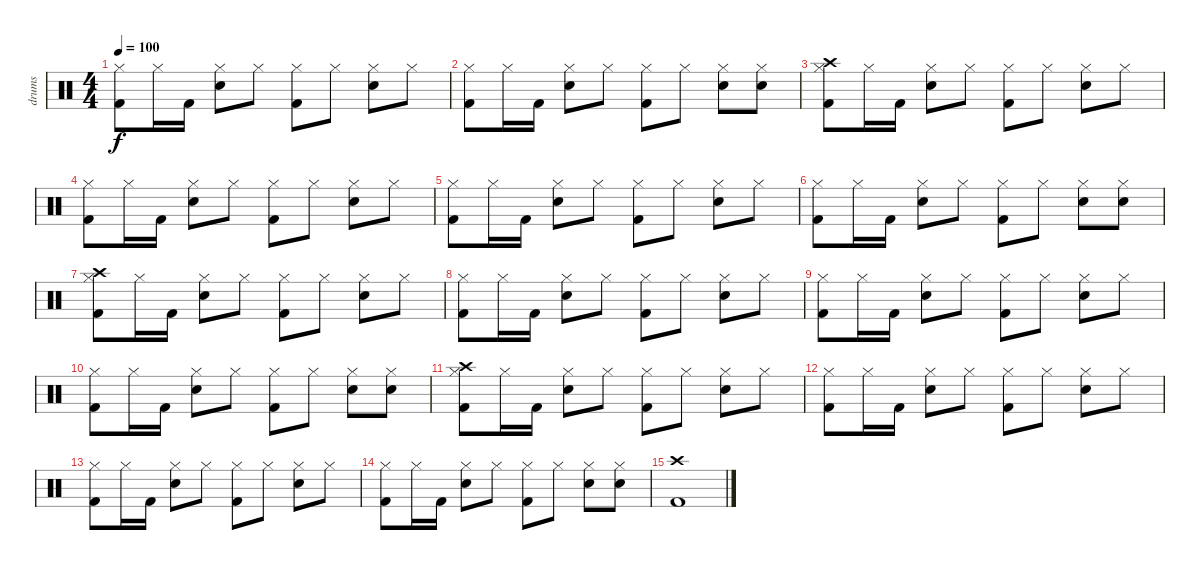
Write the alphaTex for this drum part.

\track ("drums" "drums") {instrument percussion}
\staff {score}
\articulation defaults
\ts (4 4)
\tempo 100
\clef neutral
\ks c
("Hi-Hat (closed)" "Kick (hit) 2").8{dy f} "Hi-Hat (closed)".16 "Kick (hit) 2".16 ("Hi-Hat (closed)" "Snare (hit) 2").8 "Hi-Hat (closed)".8 ("Hi-Hat (closed)" "Kick (hit) 2").8 "Hi-Hat (closed)".8 ("Hi-Hat (closed)" "Snare (hit) 2").8 "Hi-Hat (closed)".8 |
("Hi-Hat (closed)" "Kick (hit) 2").8 "Hi-Hat (closed)".16 "Kick (hit) 2".16 ("Hi-Hat (closed)" "Snare (hit) 2").8 "Hi-Hat (closed)".8 ("Hi-Hat (closed)" "Kick (hit) 2").8 "Hi-Hat (closed)".8 ("Hi-Hat (closed)" "Snare (hit) 2").8 ("Hi-Hat (closed)" "Electric Snare (hit)").8 |
("Crash high (hit)" "Hi-Hat (closed)" "Kick (hit) 2").8 "Hi-Hat (closed)".16 "Kick (hit) 2".16 ("Hi-Hat (closed)" "Snare (hit) 2").8 "Hi-Hat (closed)".8 ("Hi-Hat (closed)" "Kick (hit) 2").8 "Hi-Hat (closed)".8 ("Hi-Hat (closed)" "Snare (hit) 2").8 "Hi-Hat (closed)".8 |
("Hi-Hat (closed)" "Kick (hit) 2").8 "Hi-Hat (closed)".16 "Kick (hit) 2".16 ("Hi-Hat (closed)" "Snare (hit) 2").8 "Hi-Hat (closed)".8 ("Hi-Hat (closed)" "Kick (hit) 2").8 "Hi-Hat (closed)".8 ("Hi-Hat (closed)" "Snare (hit) 2").8 "Hi-Hat (closed)".8 |
("Hi-Hat (closed)" "Kick (hit) 2").8 "Hi-Hat (closed)".16 "Kick (hit) 2".16 ("Hi-Hat (closed)" "Snare (hit) 2").8 "Hi-Hat (closed)".8 ("Hi-Hat (closed)" "Kick (hit) 2").8 "Hi-Hat (closed)".8 ("Hi-Hat (closed)" "Snare (hit) 2").8 "Hi-Hat (closed)".8 |
("Hi-Hat (closed)" "Kick (hit) 2").8 "Hi-Hat (closed)".16 "Kick (hit) 2".16 ("Hi-Hat (closed)" "Snare (hit) 2").8 "Hi-Hat (closed)".8 ("Hi-Hat (closed)" "Kick (hit) 2").8 "Hi-Hat (closed)".8 ("Hi-Hat (closed)" "Snare (hit) 2").8 ("Hi-Hat (closed)" "Electric Snare (hit)").8 |
("Crash high (hit)" "Hi-Hat (closed)" "Kick (hit) 2").8{volume 10} "Hi-Hat (closed)".16 "Kick (hit) 2".16 ("Hi-Hat (closed)" "Snare (hit) 2").8 "Hi-Hat (closed)".8 ("Hi-Hat (closed)" "Kick (hit) 2").8 "Hi-Hat (closed)".8 ("Hi-Hat (closed)" "Snare (hit) 2").8 "Hi-Hat (closed)".8 |
("Hi-Hat (closed)" "Kick (hit) 2").8 "Hi-Hat (closed)".16 "Kick (hit) 2".16 ("Hi-Hat (closed)" "Snare (hit) 2").8 "Hi-Hat (closed)".8 ("Hi-Hat (closed)" "Kick (hit) 2").8 "Hi-Hat (closed)".8 ("Hi-Hat (closed)" "Snare (hit) 2").8 "Hi-Hat (closed)".8 |
("Hi-Hat (closed)" "Kick (hit) 2").8{volume 8} "Hi-Hat (closed)".16 "Kick (hit) 2".16 ("Hi-Hat (closed)" "Snare (hit) 2").8 "Hi-Hat (closed)".8 ("Hi-Hat (closed)" "Kick (hit) 2").8 "Hi-Hat (closed)".8 ("Hi-Hat (closed)" "Snare (hit) 2").8 "Hi-Hat (closed)".8 |
("Hi-Hat (closed)" "Kick (hit) 2").8 "Hi-Hat (closed)".16 "Kick (hit) 2".16 ("Hi-Hat (closed)" "Snare (hit) 2").8 "Hi-Hat (closed)".8 ("Hi-Hat (closed)" "Kick (hit) 2").8 "Hi-Hat (closed)".8 ("Hi-Hat (closed)" "Snare (hit) 2").8 ("Hi-Hat (closed)" "Electric Snare (hit)").8 |
("Crash high (hit)" "Hi-Hat (closed)" "Kick (hit) 2").8{volume 4} "Hi-Hat (closed)".16 "Kick (hit) 2".16 ("Hi-Hat (closed)" "Snare (hit) 2").8 "Hi-Hat (closed)".8 ("Hi-Hat (closed)" "Kick (hit) 2").8 "Hi-Hat (closed)".8 ("Hi-Hat (closed)" "Snare (hit) 2").8 "Hi-Hat (closed)".8 |
("Hi-Hat (closed)" "Kick (hit) 2").8 "Hi-Hat (closed)".16 "Kick (hit) 2".16 ("Hi-Hat (closed)" "Snare (hit) 2").8 "Hi-Hat (closed)".8 ("Hi-Hat (closed)" "Kick (hit) 2").8 "Hi-Hat (closed)".8 ("Hi-Hat (closed)" "Snare (hit) 2").8 "Hi-Hat (closed)".8 |
("Hi-Hat (closed)" "Kick (hit) 2").8{volume 0} "Hi-Hat (closed)".16 "Kick (hit) 2".16 ("Hi-Hat (closed)" "Snare (hit) 2").8 "Hi-Hat (closed)".8 ("Hi-Hat (closed)" "Kick (hit) 2").8 "Hi-Hat (closed)".8 ("Hi-Hat (closed)" "Snare (hit) 2").8 "Hi-Hat (closed)".8 |
("Hi-Hat (closed)" "Kick (hit) 2").8 "Hi-Hat (closed)".16 "Kick (hit) 2".16 ("Hi-Hat (closed)" "Snare (hit) 2").8 "Hi-Hat (closed)".8 ("Hi-Hat (closed)" "Kick (hit) 2").8 "Hi-Hat (closed)".8 ("Hi-Hat (closed)" "Snare (hit) 2").8 ("Hi-Hat (closed)" "Electric Snare (hit)").8 |
("Crash high (hit)" "Kick (hit) 2").1
